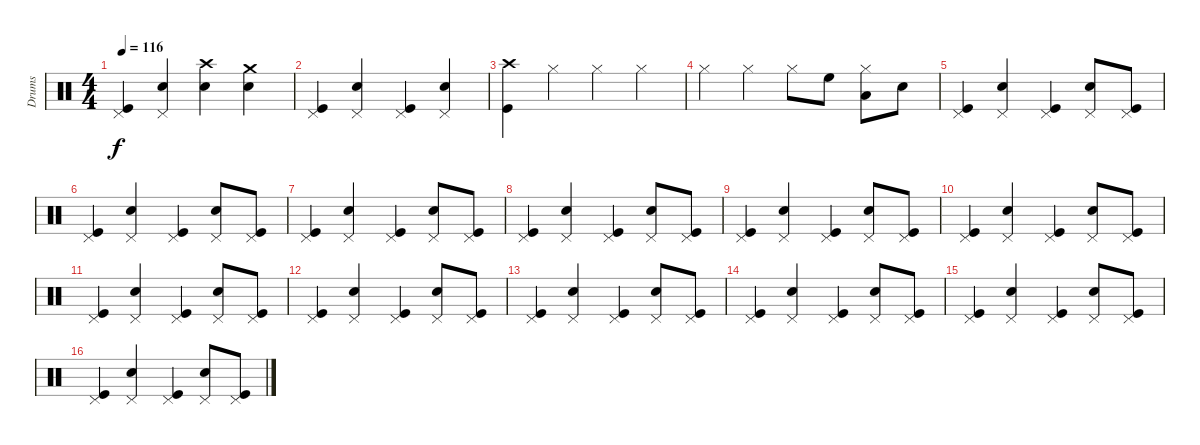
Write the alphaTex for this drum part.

\track ("Drums" "Drums") {instrument percussion}
\staff {score}
\articulation defaults
\ts (4 4)
\tempo 116
\clef neutral
\ks c
("Pedal Hi-Hat (hit)" "Kick (hit)").4{dy f} ("Pedal Hi-Hat (hit)" "Electric Snare (hit)").4 ("Electric Snare (hit)" "Crash high (hit)").4 ("Crash medium (hit)" "Electric Snare (hit)").4 |
("Pedal Hi-Hat (hit)" "Kick (hit)").4 ("Pedal Hi-Hat (hit)" "Electric Snare (hit)").4 ("Pedal Hi-Hat (hit)" "Kick (hit)").4 ("Pedal Hi-Hat (hit)" "Electric Snare (hit)").4 |
("Crash high (hit)" "Kick (hit)").4 "Hi-Hat (closed)".4 "Hi-Hat (closed)".4 "Hi-Hat (closed)".4 |
"Hi-Hat (closed)".4 "Hi-Hat (closed)".4 "Hi-Hat (closed)".8 "High Floor Tom (hit)".8 ("Low Tom (hit)" "Hi-Hat (closed)").8 "Electric Snare (hit)".8 |
("Pedal Hi-Hat (hit)" "Kick (hit)").4 ("Pedal Hi-Hat (hit)" "Electric Snare (hit)").4 ("Pedal Hi-Hat (hit)" "Kick (hit)").4 ("Pedal Hi-Hat (hit)" "Electric Snare (hit)").8 ("Pedal Hi-Hat (hit)" "Kick (hit)").8 |
("Pedal Hi-Hat (hit)" "Kick (hit)").4 ("Pedal Hi-Hat (hit)" "Electric Snare (hit)").4 ("Pedal Hi-Hat (hit)" "Kick (hit)").4 ("Pedal Hi-Hat (hit)" "Electric Snare (hit)").8 ("Pedal Hi-Hat (hit)" "Kick (hit)").8 |
("Pedal Hi-Hat (hit)" "Kick (hit)").4 ("Pedal Hi-Hat (hit)" "Electric Snare (hit)").4 ("Pedal Hi-Hat (hit)" "Kick (hit)").4 ("Pedal Hi-Hat (hit)" "Electric Snare (hit)").8 ("Pedal Hi-Hat (hit)" "Kick (hit)").8 |
("Pedal Hi-Hat (hit)" "Kick (hit)").4 ("Pedal Hi-Hat (hit)" "Electric Snare (hit)").4 ("Pedal Hi-Hat (hit)" "Kick (hit)").4 ("Pedal Hi-Hat (hit)" "Electric Snare (hit)").8 ("Pedal Hi-Hat (hit)" "Kick (hit)").8 |
("Pedal Hi-Hat (hit)" "Kick (hit)").4 ("Pedal Hi-Hat (hit)" "Electric Snare (hit)").4 ("Pedal Hi-Hat (hit)" "Kick (hit)").4 ("Pedal Hi-Hat (hit)" "Electric Snare (hit)").8 ("Pedal Hi-Hat (hit)" "Kick (hit)").8 |
("Pedal Hi-Hat (hit)" "Kick (hit)").4 ("Pedal Hi-Hat (hit)" "Electric Snare (hit)").4 ("Pedal Hi-Hat (hit)" "Kick (hit)").4 ("Pedal Hi-Hat (hit)" "Electric Snare (hit)").8 ("Pedal Hi-Hat (hit)" "Kick (hit)").8 |
("Pedal Hi-Hat (hit)" "Kick (hit)").4 ("Pedal Hi-Hat (hit)" "Electric Snare (hit)").4 ("Pedal Hi-Hat (hit)" "Kick (hit)").4 ("Pedal Hi-Hat (hit)" "Electric Snare (hit)").8 ("Pedal Hi-Hat (hit)" "Kick (hit)").8 |
("Pedal Hi-Hat (hit)" "Kick (hit)").4 ("Pedal Hi-Hat (hit)" "Electric Snare (hit)").4 ("Pedal Hi-Hat (hit)" "Kick (hit)").4 ("Pedal Hi-Hat (hit)" "Electric Snare (hit)").8 ("Pedal Hi-Hat (hit)" "Kick (hit)").8 |
("Pedal Hi-Hat (hit)" "Kick (hit)").4 ("Pedal Hi-Hat (hit)" "Electric Snare (hit)").4 ("Pedal Hi-Hat (hit)" "Kick (hit)").4 ("Pedal Hi-Hat (hit)" "Electric Snare (hit)").8 ("Pedal Hi-Hat (hit)" "Kick (hit)").8 |
("Pedal Hi-Hat (hit)" "Kick (hit)").4 ("Pedal Hi-Hat (hit)" "Electric Snare (hit)").4 ("Pedal Hi-Hat (hit)" "Kick (hit)").4 ("Pedal Hi-Hat (hit)" "Electric Snare (hit)").8 ("Pedal Hi-Hat (hit)" "Kick (hit)").8 |
("Pedal Hi-Hat (hit)" "Kick (hit)").4 ("Pedal Hi-Hat (hit)" "Electric Snare (hit)").4 ("Pedal Hi-Hat (hit)" "Kick (hit)").4 ("Pedal Hi-Hat (hit)" "Electric Snare (hit)").8 ("Pedal Hi-Hat (hit)" "Kick (hit)").8 |
("Pedal Hi-Hat (hit)" "Kick (hit)").4 ("Pedal Hi-Hat (hit)" "Electric Snare (hit)").4 ("Pedal Hi-Hat (hit)" "Kick (hit)").4 ("Pedal Hi-Hat (hit)" "Electric Snare (hit)").8 ("Pedal Hi-Hat (hit)" "Kick (hit)").8
